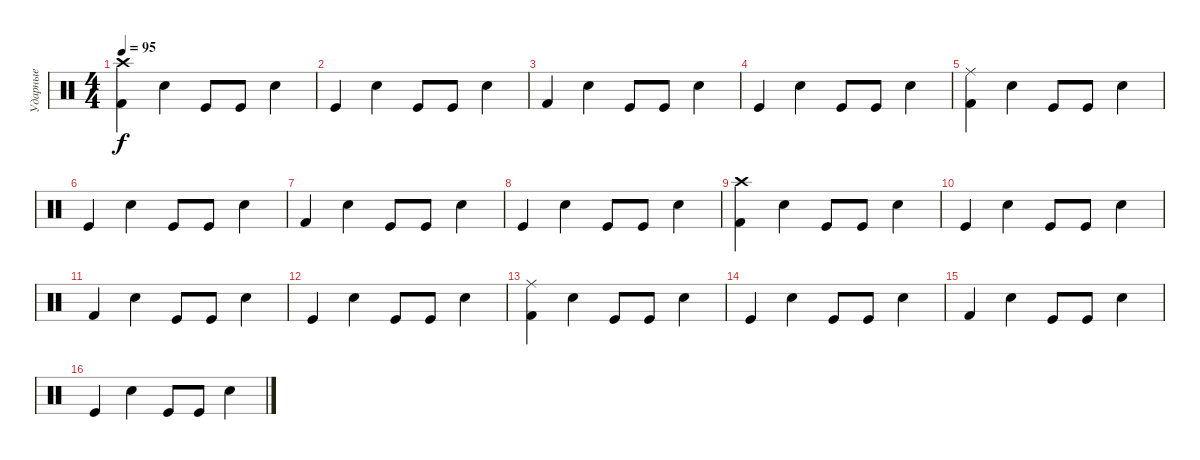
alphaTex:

\track ("Ударные" "Ударные") {instrument percussion}
\staff {score}
\articulation defaults
\ts (4 4)
\tempo 95
\clef neutral
\ks c
("Crash high (hit)" "Kick (hit) 2").4{dy f} "Electric Snare (hit)".4 "Kick (hit)".8 "Kick (hit)".8 "Electric Snare (hit)".4 |
"Kick (hit)".4 "Electric Snare (hit)".4 "Kick (hit)".8 "Kick (hit)".8 "Electric Snare (hit)".4 |
"Kick (hit) 2".4 "Electric Snare (hit)".4 "Kick (hit)".8 "Kick (hit)".8 "Electric Snare (hit)".4 |
"Kick (hit)".4 "Electric Snare (hit)".4 "Kick (hit)".8 "Kick (hit)".8 "Electric Snare (hit)".4 |
("Ride (middle)" "Kick (hit) 2").4 "Electric Snare (hit)".4 "Kick (hit)".8 "Kick (hit)".8 "Electric Snare (hit)".4 |
"Kick (hit)".4 "Electric Snare (hit)".4 "Kick (hit)".8 "Kick (hit)".8 "Electric Snare (hit)".4 |
"Kick (hit) 2".4 "Electric Snare (hit)".4 "Kick (hit)".8 "Kick (hit)".8 "Electric Snare (hit)".4 |
"Kick (hit)".4 "Electric Snare (hit)".4 "Kick (hit)".8 "Kick (hit)".8 "Electric Snare (hit)".4 |
("Crash high (hit)" "Kick (hit) 2").4 "Electric Snare (hit)".4 "Kick (hit)".8 "Kick (hit)".8 "Electric Snare (hit)".4 |
"Kick (hit)".4 "Electric Snare (hit)".4 "Kick (hit)".8 "Kick (hit)".8 "Electric Snare (hit)".4 |
"Kick (hit) 2".4 "Electric Snare (hit)".4 "Kick (hit)".8 "Kick (hit)".8 "Electric Snare (hit)".4 |
"Kick (hit)".4 "Electric Snare (hit)".4 "Kick (hit)".8 "Kick (hit)".8 "Electric Snare (hit)".4 |
("Ride (middle)" "Kick (hit) 2").4 "Electric Snare (hit)".4 "Kick (hit)".8 "Kick (hit)".8 "Electric Snare (hit)".4 |
"Kick (hit)".4 "Electric Snare (hit)".4 "Kick (hit)".8 "Kick (hit)".8 "Electric Snare (hit)".4 |
"Kick (hit) 2".4 "Electric Snare (hit)".4 "Kick (hit)".8 "Kick (hit)".8 "Electric Snare (hit)".4 |
"Kick (hit)".4 "Electric Snare (hit)".4 "Kick (hit)".8 "Kick (hit)".8 "Electric Snare (hit)".4
